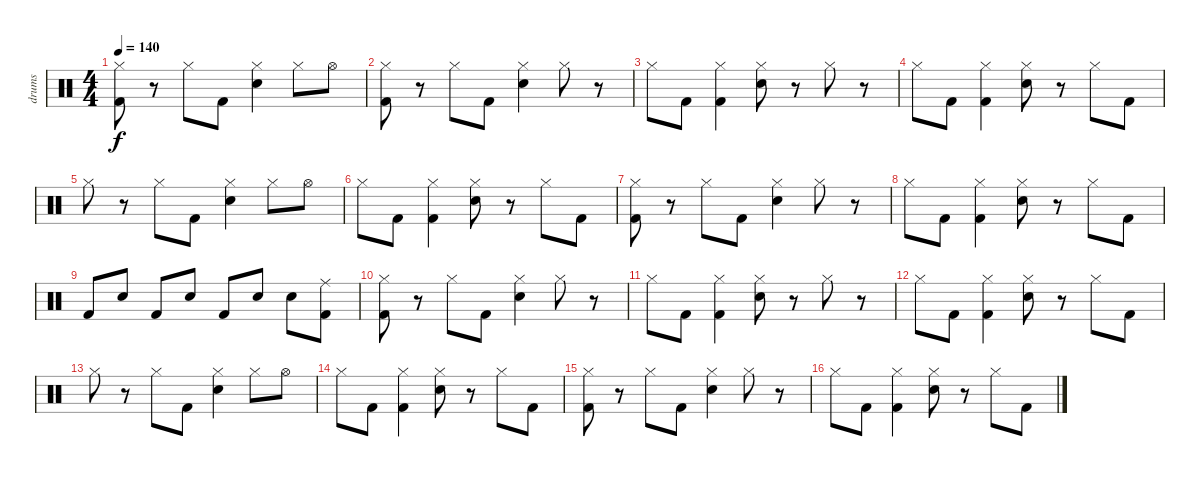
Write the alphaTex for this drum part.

\track ("drums" "drums") {instrument percussion}
\staff {score}
\articulation defaults
\ts (4 4)
\tempo 140
\clef neutral
\ks c
("Hi-Hat (closed)" "Kick (hit) 2").8{dy f} r.8 "Hi-Hat (closed)".8 "Kick (hit) 2".8 ("Hi-Hat (closed)" "Snare (hit) 2").4 "Hi-Hat (closed)".8 "Hi-Hat (open)".8 |
("Hi-Hat (closed)" "Kick (hit) 2").8 r.8 "Hi-Hat (closed)".8 "Kick (hit) 2".8 ("Hi-Hat (closed)" "Snare (hit) 2").4 "Hi-Hat (closed)".8 r.8 |
"Hi-Hat (closed)".8 "Kick (hit) 2".8 ("Hi-Hat (closed)" "Kick (hit) 2").4 ("Hi-Hat (closed)" "Snare (hit) 2").8 r.8 "Hi-Hat (closed)".8 r.8 |
"Hi-Hat (closed)".8 "Kick (hit) 2".8 ("Hi-Hat (closed)" "Kick (hit) 2").4 ("Hi-Hat (closed)" "Snare (hit) 2").8 r.8 "Hi-Hat (closed)".8 "Kick (hit) 2".8 |
"Hi-Hat (closed)".8 r.8 "Hi-Hat (closed)".8 "Kick (hit) 2".8 ("Hi-Hat (closed)" "Snare (hit) 2").4 "Hi-Hat (closed)".8 "Hi-Hat (open)".8 |
"Hi-Hat (closed)".8 "Kick (hit) 2".8 ("Hi-Hat (closed)" "Kick (hit) 2").4 ("Hi-Hat (closed)" "Snare (hit) 2").8 r.8 "Hi-Hat (closed)".8 "Kick (hit) 2".8 |
("Hi-Hat (closed)" "Kick (hit) 2").8 r.8 "Hi-Hat (closed)".8 "Kick (hit) 2".8 ("Hi-Hat (closed)" "Snare (hit) 2").4 "Hi-Hat (closed)".8 r.8 |
"Hi-Hat (closed)".8 "Kick (hit) 2".8 ("Hi-Hat (closed)" "Kick (hit) 2").4 ("Hi-Hat (closed)" "Snare (hit) 2").8 r.8 "Hi-Hat (closed)".8 "Kick (hit) 2".8 |
"Kick (hit) 2".8 "Snare (hit) 2".8 "Kick (hit) 2".8 "Snare (hit) 2".8 "Kick (hit) 2".8 "Snare (hit) 2".8 "Snare (hit) 2".8 ("Ride (middle)" "Kick (hit) 2").8 |
("Hi-Hat (closed)" "Kick (hit) 2").8 r.8 "Hi-Hat (closed)".8 "Kick (hit) 2".8 ("Hi-Hat (closed)" "Snare (hit) 2").4 "Hi-Hat (closed)".8 r.8 |
"Hi-Hat (closed)".8 "Kick (hit) 2".8 ("Hi-Hat (closed)" "Kick (hit) 2").4 ("Hi-Hat (closed)" "Snare (hit) 2").8 r.8 "Hi-Hat (closed)".8 r.8 |
"Hi-Hat (closed)".8 "Kick (hit) 2".8 ("Hi-Hat (closed)" "Kick (hit) 2").4 ("Hi-Hat (closed)" "Snare (hit) 2").8 r.8 "Hi-Hat (closed)".8 "Kick (hit) 2".8 |
"Hi-Hat (closed)".8 r.8 "Hi-Hat (closed)".8 "Kick (hit) 2".8 ("Hi-Hat (closed)" "Snare (hit) 2").4 "Hi-Hat (closed)".8 "Hi-Hat (open)".8 |
"Hi-Hat (closed)".8 "Kick (hit) 2".8 ("Hi-Hat (closed)" "Kick (hit) 2").4 ("Hi-Hat (closed)" "Snare (hit) 2").8 r.8 "Hi-Hat (closed)".8 "Kick (hit) 2".8 |
("Hi-Hat (closed)" "Kick (hit) 2").8 r.8 "Hi-Hat (closed)".8 "Kick (hit) 2".8 ("Hi-Hat (closed)" "Snare (hit) 2").4 "Hi-Hat (closed)".8 r.8 |
"Hi-Hat (closed)".8 "Kick (hit) 2".8 ("Hi-Hat (closed)" "Kick (hit) 2").4 ("Hi-Hat (closed)" "Snare (hit) 2").8 r.8 "Hi-Hat (closed)".8 "Kick (hit) 2".8
